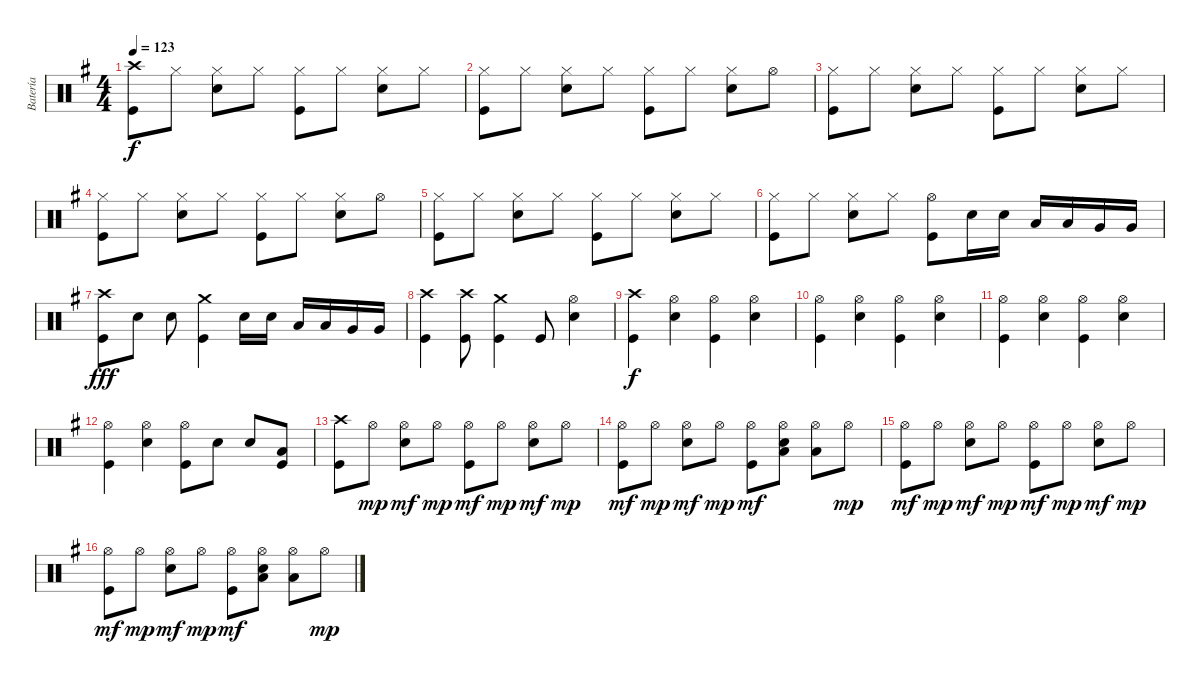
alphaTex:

\track ("Batería" "Batería") {instrument percussion}
\staff {score}
\articulation defaults
\ts (4 4)
\tempo 123
\clef neutral
\ks g
("Crash high (hit)" "Kick (hit)").8{dy f} "Hi-Hat (closed)".8 ("Hi-Hat (closed)" "Snare (hit) 2").8 "Hi-Hat (closed)".8 ("Hi-Hat (closed)" "Kick (hit)").8 "Hi-Hat (closed)".8 ("Hi-Hat (closed)" "Snare (hit) 2").8 "Hi-Hat (closed)".8 |
("Hi-Hat (closed)" "Kick (hit)").8 "Hi-Hat (closed)".8 ("Hi-Hat (closed)" "Snare (hit) 2").8 "Hi-Hat (closed)".8 ("Hi-Hat (closed)" "Kick (hit)").8 "Hi-Hat (closed)".8 ("Hi-Hat (closed)" "Snare (hit) 2").8 "Hi-Hat (open)".8 |
("Hi-Hat (closed)" "Kick (hit)").8 "Hi-Hat (closed)".8 ("Hi-Hat (closed)" "Snare (hit) 2").8 "Hi-Hat (closed)".8 ("Hi-Hat (closed)" "Kick (hit)").8 "Hi-Hat (closed)".8 ("Hi-Hat (closed)" "Snare (hit) 2").8 "Hi-Hat (closed)".8 |
("Hi-Hat (closed)" "Kick (hit)").8 "Hi-Hat (closed)".8 ("Hi-Hat (closed)" "Snare (hit) 2").8 "Hi-Hat (closed)".8 ("Hi-Hat (closed)" "Kick (hit)").8 "Hi-Hat (closed)".8 ("Hi-Hat (closed)" "Snare (hit) 2").8 "Hi-Hat (open)".8 |
("Hi-Hat (closed)" "Kick (hit)").8 "Hi-Hat (closed)".8 ("Hi-Hat (closed)" "Snare (hit) 2").8 "Hi-Hat (closed)".8 ("Hi-Hat (closed)" "Kick (hit)").8 "Hi-Hat (closed)".8 ("Hi-Hat (closed)" "Snare (hit) 2").8 "Hi-Hat (closed)".8 |
("Hi-Hat (closed)" "Kick (hit)").8 "Hi-Hat (closed)".8 ("Hi-Hat (closed)" "Snare (hit) 2").8 "Hi-Hat (closed)".8 ("Hi-Hat (open)" "Kick (hit)").8 "Snare (hit) 2".16 "Snare (hit) 2".16 "Low Tom (hit)".16 "Low Tom (hit)".16 "Very Low Tom (hit)".16 "Very Low Tom (hit)".16 |
("Crash high (hit)" "Kick (hit)").8{dy fff} "Snare (hit) 2".8 "Snare (hit) 2".8 ("Crash medium (hit)" "Kick (hit)").4 "Snare (hit) 2".16 "Snare (hit) 2".16 "Low Tom (hit)".16 "Low Tom (hit)".16 "Very Low Tom (hit)".16 "Very Low Tom (hit)".16 |
("Crash high (hit)" "Kick (hit)").4 ("Crash high (hit)" "Kick (hit)").8 ("Crash medium (hit)" "Kick (hit)").4 "Kick (hit)".8 ("Hi-Hat (open)" "Snare (hit) 2").4 |
("Crash high (hit)" "Kick (hit)").4{dy f} ("Hi-Hat (open)" "Snare (hit) 2").4 ("Hi-Hat (open)" "Kick (hit)").4 ("Hi-Hat (open)" "Snare (hit) 2").4 |
("Hi-Hat (open)" "Kick (hit)").4 ("Hi-Hat (open)" "Snare (hit) 2").4 ("Hi-Hat (open)" "Kick (hit)").4 ("Hi-Hat (open)" "Snare (hit) 2").4 |
("Hi-Hat (open)" "Kick (hit)").4 ("Hi-Hat (open)" "Snare (hit) 2").4 ("Hi-Hat (open)" "Kick (hit)").4 ("Hi-Hat (open)" "Snare (hit) 2").4 |
("Hi-Hat (open)" "Kick (hit)").4 ("Hi-Hat (open)" "Snare (hit) 2").4 ("Hi-Hat (open)" "Kick (hit)").8 "Snare (hit) 2".8 "Snare (hit) 2".8 ("Low Floor Tom (hit)" "Kick (hit)").8 |
("Crash high (hit)" "Kick (hit)").8 "Hi-Hat (open)".8{dy mp} ("Hi-Hat (open)" "Snare (hit) 2").8{dy mf} "Hi-Hat (open)".8{dy mp} ("Hi-Hat (open)" "Kick (hit)").8{dy mf} "Hi-Hat (open)".8{dy mp} ("Hi-Hat (open)" "Snare (hit) 2").8{dy mf} "Hi-Hat (open)".8{dy mp} |
("Hi-Hat (open)" "Kick (hit)").8{dy mf} "Hi-Hat (open)".8{dy mp} ("Hi-Hat (open)" "Snare (hit) 2").8{dy mf} "Hi-Hat (open)".8{dy mp} ("Hi-Hat (open)" "Kick (hit)").8{dy mf} ("Hi-Hat (open)" "Low Floor Tom (hit)" "Snare (hit) 2").8 ("Hi-Hat (open)" "Low Floor Tom (hit)").8 "Hi-Hat (open)".8{dy mp} |
("Hi-Hat (open)" "Kick (hit)").8{dy mf} "Hi-Hat (open)".8{dy mp} ("Hi-Hat (open)" "Snare (hit) 2").8{dy mf} "Hi-Hat (open)".8{dy mp} ("Hi-Hat (open)" "Kick (hit)").8{dy mf} "Hi-Hat (open)".8{dy mp} ("Hi-Hat (open)" "Snare (hit) 2").8{dy mf} "Hi-Hat (open)".8{dy mp} |
("Hi-Hat (open)" "Kick (hit)").8{dy mf} "Hi-Hat (open)".8{dy mp} ("Hi-Hat (open)" "Snare (hit) 2").8{dy mf} "Hi-Hat (open)".8{dy mp} ("Hi-Hat (open)" "Kick (hit)").8{dy mf} ("Hi-Hat (open)" "Low Floor Tom (hit)" "Snare (hit) 2").8 ("Hi-Hat (open)" "Low Floor Tom (hit)").8 "Hi-Hat (open)".8{dy mp}
